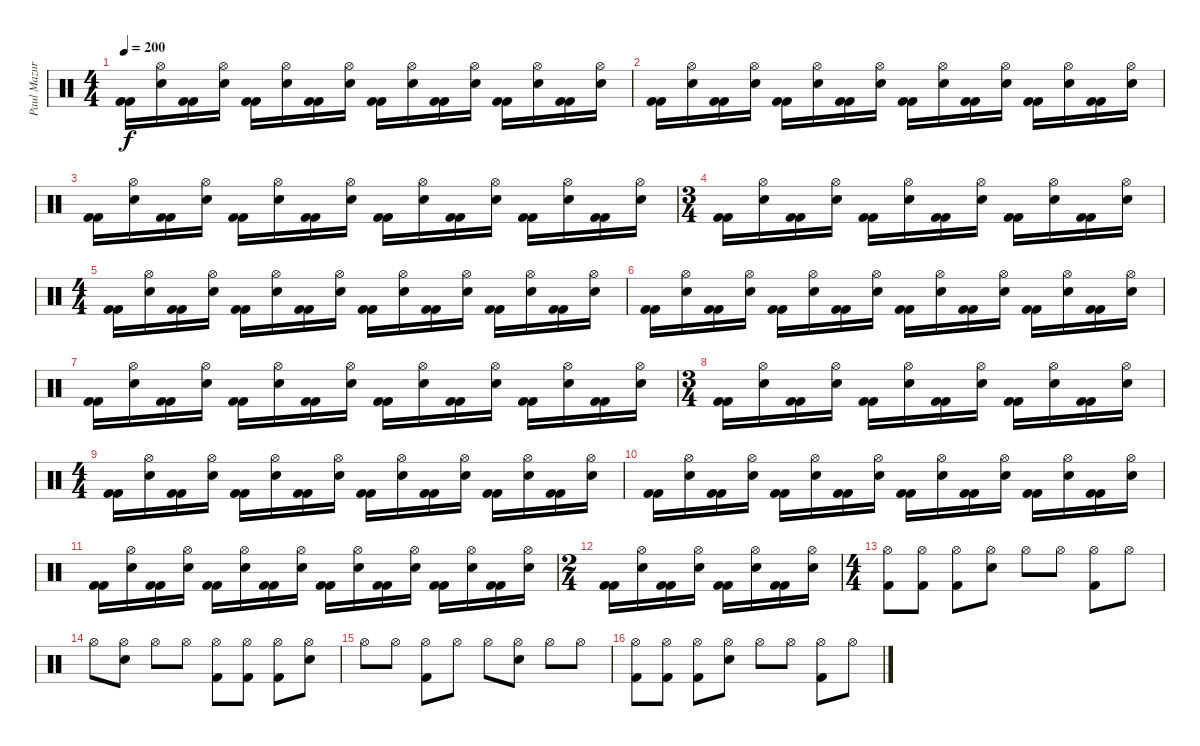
\track ("Paul Mazurkiewicz" "Paul Mazur") {instrument percussion}
\staff {score}
\articulation defaults
\ts (4 4)
\tempo 200
\clef neutral
\ks c
("Kick (hit) 2" "Kick (hit) 2").16{dy f} ("Hi-Hat (open)" "Electric Snare (hit)").16 ("Kick (hit) 2" "Kick (hit) 2").16 ("Hi-Hat (open)" "Electric Snare (hit)").16 ("Kick (hit) 2" "Kick (hit) 2").16 ("Hi-Hat (open)" "Electric Snare (hit)").16 ("Kick (hit) 2" "Kick (hit) 2").16 ("Hi-Hat (open)" "Electric Snare (hit)").16 ("Kick (hit) 2" "Kick (hit) 2").16 ("Hi-Hat (open)" "Electric Snare (hit)").16 ("Kick (hit) 2" "Kick (hit) 2").16 ("Hi-Hat (open)" "Electric Snare (hit)").16 ("Kick (hit) 2" "Kick (hit) 2").16 ("Hi-Hat (open)" "Electric Snare (hit)").16 ("Kick (hit) 2" "Kick (hit) 2").16 ("Hi-Hat (open)" "Electric Snare (hit)").16 |
("Kick (hit) 2" "Kick (hit) 2").16 ("Hi-Hat (open)" "Electric Snare (hit)").16 ("Kick (hit) 2" "Kick (hit) 2").16 ("Hi-Hat (open)" "Electric Snare (hit)").16 ("Kick (hit) 2" "Kick (hit) 2").16 ("Hi-Hat (open)" "Electric Snare (hit)").16 ("Kick (hit) 2" "Kick (hit) 2").16 ("Hi-Hat (open)" "Electric Snare (hit)").16 ("Kick (hit) 2" "Kick (hit) 2").16 ("Hi-Hat (open)" "Electric Snare (hit)").16 ("Kick (hit) 2" "Kick (hit) 2").16 ("Hi-Hat (open)" "Electric Snare (hit)").16 ("Kick (hit) 2" "Kick (hit) 2").16 ("Hi-Hat (open)" "Electric Snare (hit)").16 ("Kick (hit) 2" "Kick (hit) 2").16 ("Hi-Hat (open)" "Electric Snare (hit)").16 |
("Kick (hit) 2" "Kick (hit) 2").16 ("Hi-Hat (open)" "Electric Snare (hit)").16 ("Kick (hit) 2" "Kick (hit) 2").16 ("Hi-Hat (open)" "Electric Snare (hit)").16 ("Kick (hit) 2" "Kick (hit) 2").16 ("Hi-Hat (open)" "Electric Snare (hit)").16 ("Kick (hit) 2" "Kick (hit) 2").16 ("Hi-Hat (open)" "Electric Snare (hit)").16 ("Kick (hit) 2" "Kick (hit) 2").16 ("Hi-Hat (open)" "Electric Snare (hit)").16 ("Kick (hit) 2" "Kick (hit) 2").16 ("Hi-Hat (open)" "Electric Snare (hit)").16 ("Kick (hit) 2" "Kick (hit) 2").16 ("Hi-Hat (open)" "Electric Snare (hit)").16 ("Kick (hit) 2" "Kick (hit) 2").16 ("Hi-Hat (open)" "Electric Snare (hit)").16 |
\ts (3 4)
("Kick (hit) 2" "Kick (hit) 2").16 ("Hi-Hat (open)" "Electric Snare (hit)").16 ("Kick (hit) 2" "Kick (hit) 2").16 ("Hi-Hat (open)" "Electric Snare (hit)").16 ("Kick (hit) 2" "Kick (hit) 2").16 ("Hi-Hat (open)" "Electric Snare (hit)").16 ("Kick (hit) 2" "Kick (hit) 2").16 ("Hi-Hat (open)" "Electric Snare (hit)").16 ("Kick (hit) 2" "Kick (hit) 2").16 ("Hi-Hat (open)" "Electric Snare (hit)").16 ("Kick (hit) 2" "Kick (hit) 2").16 ("Hi-Hat (open)" "Electric Snare (hit)").16 |
\ts (4 4)
("Kick (hit) 2" "Kick (hit) 2").16 ("Hi-Hat (open)" "Electric Snare (hit)").16 ("Kick (hit) 2" "Kick (hit) 2").16 ("Hi-Hat (open)" "Electric Snare (hit)").16 ("Kick (hit) 2" "Kick (hit) 2").16 ("Hi-Hat (open)" "Electric Snare (hit)").16 ("Kick (hit) 2" "Kick (hit) 2").16 ("Hi-Hat (open)" "Electric Snare (hit)").16 ("Kick (hit) 2" "Kick (hit) 2").16 ("Hi-Hat (open)" "Electric Snare (hit)").16 ("Kick (hit) 2" "Kick (hit) 2").16 ("Hi-Hat (open)" "Electric Snare (hit)").16 ("Kick (hit) 2" "Kick (hit) 2").16 ("Hi-Hat (open)" "Electric Snare (hit)").16 ("Kick (hit) 2" "Kick (hit) 2").16 ("Hi-Hat (open)" "Electric Snare (hit)").16 |
("Kick (hit) 2" "Kick (hit) 2").16 ("Hi-Hat (open)" "Electric Snare (hit)").16 ("Kick (hit) 2" "Kick (hit) 2").16 ("Hi-Hat (open)" "Electric Snare (hit)").16 ("Kick (hit) 2" "Kick (hit) 2").16 ("Hi-Hat (open)" "Electric Snare (hit)").16 ("Kick (hit) 2" "Kick (hit) 2").16 ("Hi-Hat (open)" "Electric Snare (hit)").16 ("Kick (hit) 2" "Kick (hit) 2").16 ("Hi-Hat (open)" "Electric Snare (hit)").16 ("Kick (hit) 2" "Kick (hit) 2").16 ("Hi-Hat (open)" "Electric Snare (hit)").16 ("Kick (hit) 2" "Kick (hit) 2").16 ("Hi-Hat (open)" "Electric Snare (hit)").16 ("Kick (hit) 2" "Kick (hit) 2").16 ("Hi-Hat (open)" "Electric Snare (hit)").16 |
("Kick (hit) 2" "Kick (hit) 2").16 ("Hi-Hat (open)" "Electric Snare (hit)").16 ("Kick (hit) 2" "Kick (hit) 2").16 ("Hi-Hat (open)" "Electric Snare (hit)").16 ("Kick (hit) 2" "Kick (hit) 2").16 ("Hi-Hat (open)" "Electric Snare (hit)").16 ("Kick (hit) 2" "Kick (hit) 2").16 ("Hi-Hat (open)" "Electric Snare (hit)").16 ("Kick (hit) 2" "Kick (hit) 2").16 ("Hi-Hat (open)" "Electric Snare (hit)").16 ("Kick (hit) 2" "Kick (hit) 2").16 ("Hi-Hat (open)" "Electric Snare (hit)").16 ("Kick (hit) 2" "Kick (hit) 2").16 ("Hi-Hat (open)" "Electric Snare (hit)").16 ("Kick (hit) 2" "Kick (hit) 2").16 ("Hi-Hat (open)" "Electric Snare (hit)").16 |
\ts (3 4)
("Kick (hit) 2" "Kick (hit) 2").16 ("Hi-Hat (open)" "Electric Snare (hit)").16 ("Kick (hit) 2" "Kick (hit) 2").16 ("Hi-Hat (open)" "Electric Snare (hit)").16 ("Kick (hit) 2" "Kick (hit) 2").16 ("Hi-Hat (open)" "Electric Snare (hit)").16 ("Kick (hit) 2" "Kick (hit) 2").16 ("Hi-Hat (open)" "Electric Snare (hit)").16 ("Kick (hit) 2" "Kick (hit) 2").16 ("Hi-Hat (open)" "Electric Snare (hit)").16 ("Kick (hit) 2" "Kick (hit) 2").16 ("Hi-Hat (open)" "Electric Snare (hit)").16 |
\ts (4 4)
("Kick (hit) 2" "Kick (hit) 2").16 ("Hi-Hat (open)" "Electric Snare (hit)").16 ("Kick (hit) 2" "Kick (hit) 2").16 ("Hi-Hat (open)" "Electric Snare (hit)").16 ("Kick (hit) 2" "Kick (hit) 2").16 ("Hi-Hat (open)" "Electric Snare (hit)").16 ("Kick (hit) 2" "Kick (hit) 2").16 ("Hi-Hat (open)" "Electric Snare (hit)").16 ("Kick (hit) 2" "Kick (hit) 2").16 ("Hi-Hat (open)" "Electric Snare (hit)").16 ("Kick (hit) 2" "Kick (hit) 2").16 ("Hi-Hat (open)" "Electric Snare (hit)").16 ("Kick (hit) 2" "Kick (hit) 2").16 ("Hi-Hat (open)" "Electric Snare (hit)").16 ("Kick (hit) 2" "Kick (hit) 2").16 ("Hi-Hat (open)" "Electric Snare (hit)").16 |
("Kick (hit) 2" "Kick (hit) 2").16 ("Hi-Hat (open)" "Electric Snare (hit)").16 ("Kick (hit) 2" "Kick (hit) 2").16 ("Hi-Hat (open)" "Electric Snare (hit)").16 ("Kick (hit) 2" "Kick (hit) 2").16 ("Hi-Hat (open)" "Electric Snare (hit)").16 ("Kick (hit) 2" "Kick (hit) 2").16 ("Hi-Hat (open)" "Electric Snare (hit)").16 ("Kick (hit) 2" "Kick (hit) 2").16 ("Hi-Hat (open)" "Electric Snare (hit)").16 ("Kick (hit) 2" "Kick (hit) 2").16 ("Hi-Hat (open)" "Electric Snare (hit)").16 ("Kick (hit) 2" "Kick (hit) 2").16 ("Hi-Hat (open)" "Electric Snare (hit)").16 ("Kick (hit) 2" "Kick (hit) 2").16 ("Hi-Hat (open)" "Electric Snare (hit)").16 |
("Kick (hit) 2" "Kick (hit) 2").16 ("Hi-Hat (open)" "Electric Snare (hit)").16 ("Kick (hit) 2" "Kick (hit) 2").16 ("Hi-Hat (open)" "Electric Snare (hit)").16 ("Kick (hit) 2" "Kick (hit) 2").16 ("Hi-Hat (open)" "Electric Snare (hit)").16 ("Kick (hit) 2" "Kick (hit) 2").16 ("Hi-Hat (open)" "Electric Snare (hit)").16 ("Kick (hit) 2" "Kick (hit) 2").16 ("Hi-Hat (open)" "Electric Snare (hit)").16 ("Kick (hit) 2" "Kick (hit) 2").16 ("Hi-Hat (open)" "Electric Snare (hit)").16 ("Kick (hit) 2" "Kick (hit) 2").16 ("Hi-Hat (open)" "Electric Snare (hit)").16 ("Kick (hit) 2" "Kick (hit) 2").16 ("Hi-Hat (open)" "Electric Snare (hit)").16 |
\ts (2 4)
("Kick (hit) 2" "Kick (hit) 2").16 ("Hi-Hat (open)" "Electric Snare (hit)").16 ("Kick (hit) 2" "Kick (hit) 2").16 ("Hi-Hat (open)" "Electric Snare (hit)").16 ("Kick (hit) 2" "Kick (hit) 2").16 ("Hi-Hat (open)" "Electric Snare (hit)").16 ("Kick (hit) 2" "Kick (hit) 2").16 ("Hi-Hat (open)" "Electric Snare (hit)").16 |
\ts (4 4)
("Hi-Hat (open)" "Kick (hit) 2").8 ("Hi-Hat (open)" "Kick (hit) 2").8 ("Hi-Hat (open)" "Kick (hit) 2").8 ("Hi-Hat (open)" "Electric Snare (hit)").8 "Hi-Hat (open)".8 "Hi-Hat (open)".8 ("Hi-Hat (open)" "Kick (hit) 2").8 "Hi-Hat (open)".8 |
"Hi-Hat (open)".8 ("Hi-Hat (open)" "Electric Snare (hit)").8 "Hi-Hat (open)".8 "Hi-Hat (open)".8 ("Hi-Hat (open)" "Kick (hit) 2").8 ("Hi-Hat (open)" "Kick (hit) 2").8 ("Hi-Hat (open)" "Kick (hit) 2").8 ("Hi-Hat (open)" "Electric Snare (hit)").8 |
"Hi-Hat (open)".8 "Hi-Hat (open)".8 ("Hi-Hat (open)" "Kick (hit) 2").8 "Hi-Hat (open)".8 "Hi-Hat (open)".8 ("Hi-Hat (open)" "Electric Snare (hit)").8 "Hi-Hat (open)".8 "Hi-Hat (open)".8 |
("Hi-Hat (open)" "Kick (hit) 2").8 ("Hi-Hat (open)" "Kick (hit) 2").8 ("Hi-Hat (open)" "Kick (hit) 2").8 ("Hi-Hat (open)" "Electric Snare (hit)").8 "Hi-Hat (open)".8 "Hi-Hat (open)".8 ("Hi-Hat (open)" "Kick (hit) 2").8 "Hi-Hat (open)".8
